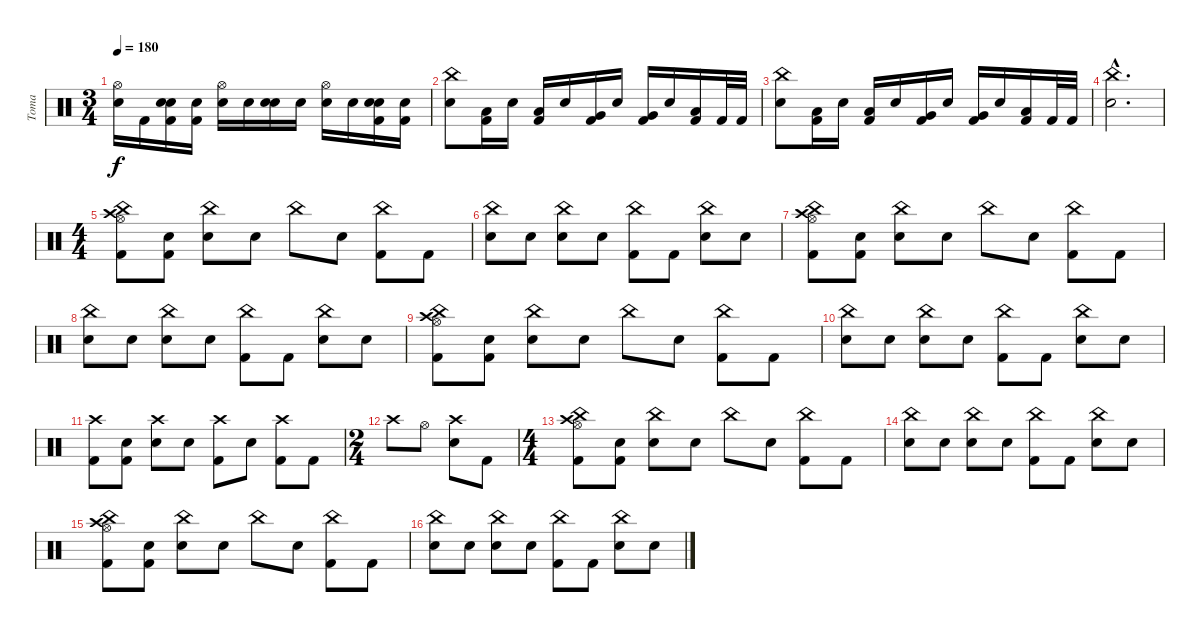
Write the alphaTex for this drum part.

\track ("Toma" "Toma") {instrument percussion}
\staff {score}
\articulation defaults
\ts (3 4)
\tempo 180
\clef neutral
\ks c
("Electric Snare (hit)" "Hi-Hat (open)").16{dy f} "Kick (hit) 2".16 ("Kick (hit) 2" "Electric Snare (hit)" "Snare (hit)").16 ("Kick (hit) 2" "Snare (hit)").16 ("Electric Snare (hit)" "Hi-Hat (open)").16 "Snare (hit)".16 ("Electric Snare (hit)" "Snare (hit)").16 "Snare (hit)".16 ("Electric Snare (hit)" "Hi-Hat (open)").16 "Snare (hit)".16 ("Kick (hit) 2" "Electric Snare (hit)" "Snare (hit)").16 ("Kick (hit) 2" "Snare (hit)").16 |
("China (hit)" "Electric Snare (hit)").8 ("Low Tom (hit)" "Kick (hit) 2").16 "Snare (hit)".16 ("Low Tom (hit)" "Kick (hit) 2").16 "Snare (hit)".16 ("Very Low Tom (hit)" "Kick (hit) 2").16 "Snare (hit)".16 ("Very Low Tom (hit)" "Kick (hit) 2").16 "Snare (hit)".16 ("Low Floor Tom (hit)" "Kick (hit) 2").16 "Kick (hit) 2".32 "Kick (hit) 2".32 |
("China (hit)" "Electric Snare (hit)").8 ("Low Tom (hit)" "Kick (hit) 2").16 "Snare (hit)".16 ("Low Tom (hit)" "Kick (hit) 2").16 "Snare (hit)".16 ("Very Low Tom (hit)" "Kick (hit) 2").16 "Snare (hit)".16 ("Very Low Tom (hit)" "Kick (hit) 2").16 "Snare (hit)".16 ("Low Floor Tom (hit)" "Kick (hit) 2").16 "Kick (hit) 2".32 "Kick (hit) 2".32 |
("Electric Snare (hit)"{hac} "China (hit)"{hac}).2{d} |
\ts (4 4)
("China (hit)" "Kick (hit) 2" "Hi-Hat (open)" "Crash high (hit)").8 ("Kick (hit) 2" "Snare (hit)").8 ("China (hit)" "Snare (hit)").8 "Snare (hit)".8 "China (hit)".8 "Snare (hit)".8 ("China (hit)" "Kick (hit) 2").8 "Kick (hit) 2".8 |
("China (hit)" "Electric Snare (hit)").8 "Snare (hit)".8 ("China (hit)" "Snare (hit)").8 "Snare (hit)".8 ("China (hit)" "Kick (hit) 2").8 "Kick (hit) 2".8 ("China (hit)" "Snare (hit)").8 "Snare (hit)".8 |
("China (hit)" "Kick (hit) 2" "Hi-Hat (open)" "Crash high (hit)").8 ("Kick (hit) 2" "Snare (hit)").8 ("China (hit)" "Snare (hit)").8 "Snare (hit)".8 "China (hit)".8 "Snare (hit)".8 ("China (hit)" "Kick (hit) 2").8 "Kick (hit) 2".8 |
("China (hit)" "Electric Snare (hit)").8 "Snare (hit)".8 ("China (hit)" "Snare (hit)").8 "Snare (hit)".8 ("China (hit)" "Kick (hit) 2").8 "Kick (hit) 2".8 ("China (hit)" "Snare (hit)").8 "Snare (hit)".8 |
("China (hit)" "Kick (hit) 2" "Hi-Hat (open)" "Crash high (hit)").8 ("Kick (hit) 2" "Snare (hit)").8 ("China (hit)" "Snare (hit)").8 "Snare (hit)".8 "China (hit)".8 "Snare (hit)".8 ("China (hit)" "Kick (hit) 2").8 "Kick (hit) 2".8 |
("China (hit)" "Electric Snare (hit)").8 "Snare (hit)".8 ("China (hit)" "Snare (hit)").8 "Snare (hit)".8 ("China (hit)" "Kick (hit) 2").8 "Kick (hit) 2".8 ("China (hit)" "Snare (hit)").8 "Snare (hit)".8 |
("Crash high (hit)" "Kick (hit) 2").8 ("Snare (hit)" "Kick (hit) 2").8 ("Crash high (hit)" "Snare (hit)").8 "Electric Snare (hit)".8 ("Crash high (hit)" "Kick (hit) 2").8 "Snare (hit)".8 ("Crash high (hit)" "Kick (hit) 2").8 "Kick (hit) 2".8 |
\ts (2 4)
"Crash high (hit)".8 "Hi-Hat (open)".8 ("Crash high (hit)" "Snare (hit)").8 "Kick (hit) 2".8 |
\ts (4 4)
("China (hit)" "Kick (hit) 2" "Hi-Hat (open)" "Crash high (hit)").8 ("Kick (hit) 2" "Snare (hit)").8 ("China (hit)" "Snare (hit)").8 "Snare (hit)".8 "China (hit)".8 "Snare (hit)".8 ("China (hit)" "Kick (hit) 2").8 "Kick (hit) 2".8 |
("China (hit)" "Electric Snare (hit)").8 "Snare (hit)".8 ("China (hit)" "Snare (hit)").8 "Snare (hit)".8 ("China (hit)" "Kick (hit) 2").8 "Kick (hit) 2".8 ("China (hit)" "Snare (hit)").8 "Snare (hit)".8 |
("China (hit)" "Kick (hit) 2" "Hi-Hat (open)" "Crash high (hit)").8 ("Kick (hit) 2" "Snare (hit)").8 ("China (hit)" "Snare (hit)").8 "Snare (hit)".8 "China (hit)".8 "Snare (hit)".8 ("China (hit)" "Kick (hit) 2").8 "Kick (hit) 2".8 |
("China (hit)" "Electric Snare (hit)").8 "Snare (hit)".8 ("China (hit)" "Snare (hit)").8 "Snare (hit)".8 ("China (hit)" "Kick (hit) 2").8 "Kick (hit) 2".8 ("China (hit)" "Snare (hit)").8 "Snare (hit)".8
